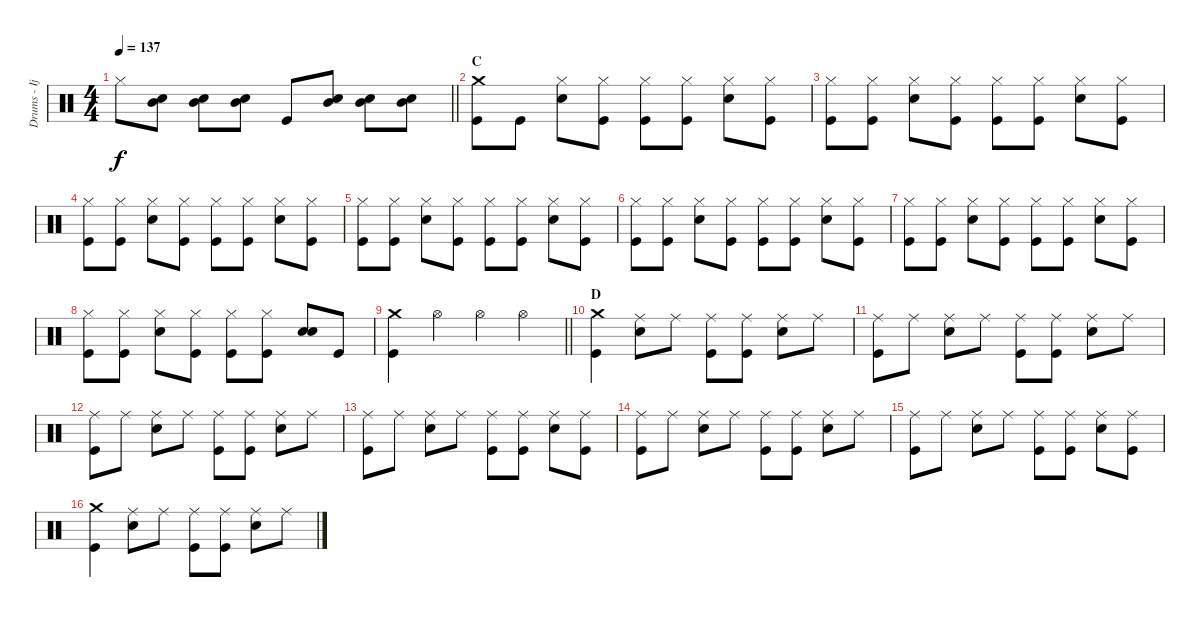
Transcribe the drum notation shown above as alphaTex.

\track ("Drums - Ijichi" "Drums - Ij") {instrument percussion}
\staff {score}
\articulation defaults
\ts (4 4)
\tempo 137
\clef neutral
\barLineRight lightlight
\ks c "Hi-Hat (closed)".8{dy f}
("Electric Snare (hit)" "Mid Tom (hit)").8 ("Electric Snare (hit)" "Mid Tom (hit)").8 ("Electric Snare (hit)" "Mid Tom (hit)").8 "Kick (hit)".8 ("Electric Snare (hit)" "Mid Tom (hit)").8 ("Electric Snare (hit)" "Mid Tom (hit)").8 ("Electric Snare (hit)" "Mid Tom (hit)").8 |
\section ("" "C")
("Crash medium (hit)" "Kick (hit)").8 "Kick (hit)".8 ("Hi-Hat (closed)" "Electric Snare (hit)").8 ("Hi-Hat (closed)" "Kick (hit)").8 ("Hi-Hat (closed)" "Kick (hit)").8 ("Hi-Hat (closed)" "Kick (hit)").8 ("Hi-Hat (closed)" "Electric Snare (hit)").8 ("Hi-Hat (closed)" "Kick (hit)").8 |
("Hi-Hat (closed)" "Kick (hit)").8 ("Hi-Hat (closed)" "Kick (hit)").8 ("Hi-Hat (closed)" "Electric Snare (hit)").8 ("Hi-Hat (closed)" "Kick (hit)").8 ("Hi-Hat (closed)" "Kick (hit)").8 ("Hi-Hat (closed)" "Kick (hit)").8 ("Hi-Hat (closed)" "Electric Snare (hit)").8 ("Hi-Hat (closed)" "Kick (hit)").8 |
("Hi-Hat (closed)" "Kick (hit)").8 ("Hi-Hat (closed)" "Kick (hit)").8 ("Hi-Hat (closed)" "Electric Snare (hit)").8 ("Hi-Hat (closed)" "Kick (hit)").8 ("Hi-Hat (closed)" "Kick (hit)").8 ("Hi-Hat (closed)" "Kick (hit)").8 ("Hi-Hat (closed)" "Electric Snare (hit)").8 ("Hi-Hat (closed)" "Kick (hit)").8 |
("Hi-Hat (closed)" "Kick (hit)").8 ("Hi-Hat (closed)" "Kick (hit)").8 ("Hi-Hat (closed)" "Electric Snare (hit)").8 ("Hi-Hat (closed)" "Kick (hit)").8 ("Hi-Hat (closed)" "Kick (hit)").8 ("Hi-Hat (closed)" "Kick (hit)").8 ("Hi-Hat (closed)" "Electric Snare (hit)").8 ("Hi-Hat (closed)" "Kick (hit)").8 |
("Hi-Hat (closed)" "Kick (hit)").8 ("Hi-Hat (closed)" "Kick (hit)").8 ("Hi-Hat (closed)" "Electric Snare (hit)").8 ("Hi-Hat (closed)" "Kick (hit)").8 ("Hi-Hat (closed)" "Kick (hit)").8 ("Hi-Hat (closed)" "Kick (hit)").8 ("Hi-Hat (closed)" "Electric Snare (hit)").8 ("Hi-Hat (closed)" "Kick (hit)").8 |
("Hi-Hat (closed)" "Kick (hit)").8 ("Hi-Hat (closed)" "Kick (hit)").8 ("Hi-Hat (closed)" "Electric Snare (hit)").8 ("Hi-Hat (closed)" "Kick (hit)").8 ("Hi-Hat (closed)" "Kick (hit)").8 ("Hi-Hat (closed)" "Kick (hit)").8 ("Hi-Hat (closed)" "Electric Snare (hit)").8 ("Hi-Hat (closed)" "Kick (hit)").8 |
("Hi-Hat (closed)" "Kick (hit)").8 ("Hi-Hat (closed)" "Kick (hit)").8 ("Hi-Hat (closed)" "Electric Snare (hit)").8 ("Hi-Hat (closed)" "Kick (hit)").8 ("Hi-Hat (closed)" "Kick (hit)").8 ("Hi-Hat (closed)" "Kick (hit)").8 ("Electric Snare (hit)" "Electric Snare (hit)").8 "Kick (hit)".8 |
\barLineRight lightlight
("Crash medium (hit)" "Kick (hit)").4 "Hi-Hat (open)".4 "Hi-Hat (open)".4 "Hi-Hat (open)".4 |
\section ("" "D")
("Crash medium (hit)" "Kick (hit)").4 ("Ride (middle)" "Electric Snare (hit)").8 "Ride (middle)".8 ("Ride (middle)" "Kick (hit)").8 ("Ride (middle)" "Kick (hit)").8 ("Ride (middle)" "Electric Snare (hit)").8 "Ride (middle)".8 |
("Ride (middle)" "Kick (hit)").8 "Ride (middle)".8 ("Ride (middle)" "Electric Snare (hit)").8 "Ride (middle)".8 ("Ride (middle)" "Kick (hit)").8 ("Ride (middle)" "Kick (hit)").8 ("Ride (middle)" "Electric Snare (hit)").8 "Ride (middle)".8 |
("Ride (middle)" "Kick (hit)").8 "Ride (middle)".8 ("Ride (middle)" "Electric Snare (hit)").8 "Ride (middle)".8 ("Ride (middle)" "Kick (hit)").8 ("Ride (middle)" "Kick (hit)").8 ("Ride (middle)" "Electric Snare (hit)").8 "Ride (middle)".8 |
("Ride (middle)" "Kick (hit)").8 "Ride (middle)".8 ("Ride (middle)" "Electric Snare (hit)").8 "Ride (middle)".8 ("Ride (middle)" "Kick (hit)").8 ("Ride (middle)" "Kick (hit)").8 ("Ride (middle)" "Electric Snare (hit)").8 ("Ride (middle)" "Kick (hit)").8 |
("Ride (middle)" "Kick (hit)").8 "Ride (middle)".8 ("Ride (middle)" "Electric Snare (hit)").8 "Ride (middle)".8 ("Ride (middle)" "Kick (hit)").8 ("Ride (middle)" "Kick (hit)").8 ("Ride (middle)" "Electric Snare (hit)").8 "Ride (middle)".8 |
("Ride (middle)" "Kick (hit)").8 "Ride (middle)".8 ("Ride (middle)" "Electric Snare (hit)").8 "Ride (middle)".8 ("Ride (middle)" "Kick (hit)").8 ("Ride (middle)" "Kick (hit)").8 ("Ride (middle)" "Electric Snare (hit)").8 ("Ride (middle)" "Kick (hit)").8 |
("Crash medium (hit)" "Kick (hit)").4 ("Ride (middle)" "Electric Snare (hit)").8 "Ride (middle)".8 ("Ride (middle)" "Kick (hit)").8 ("Ride (middle)" "Kick (hit)").8 ("Ride (middle)" "Electric Snare (hit)").8 "Ride (middle)".8
